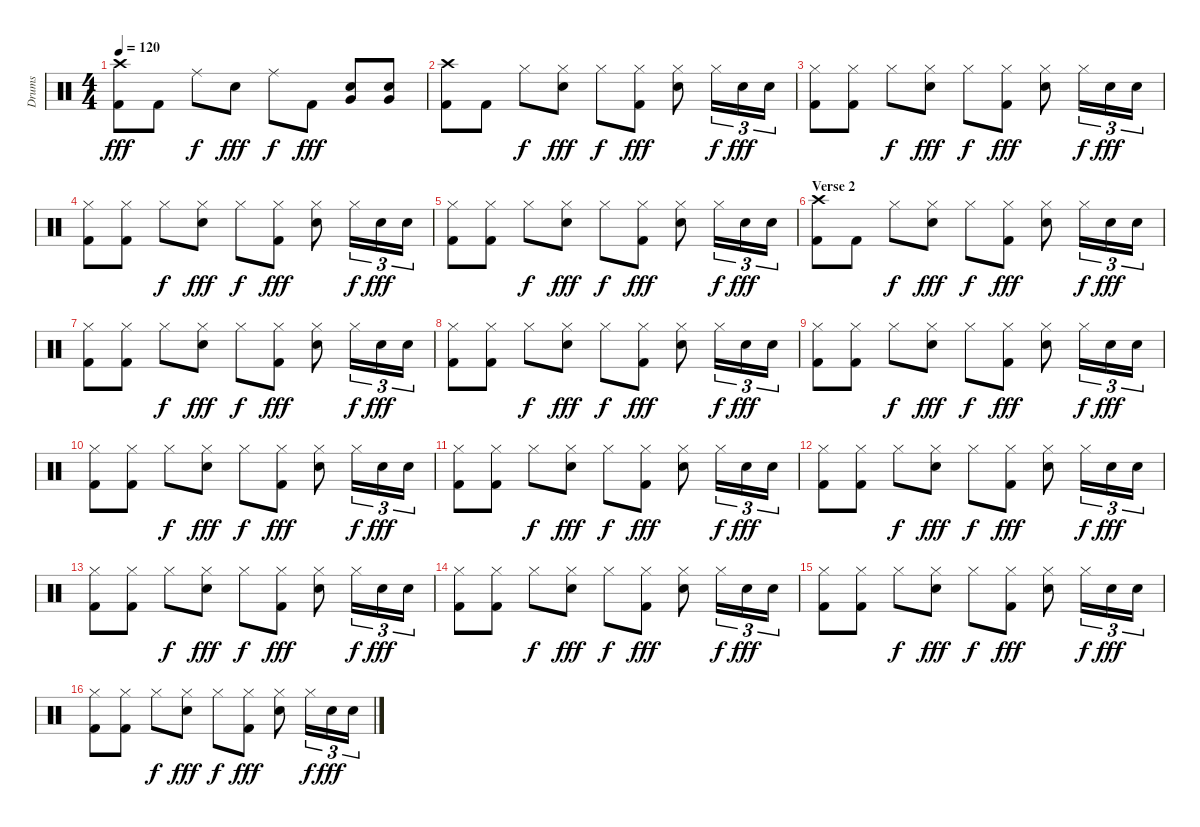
\track ("Drums" "Drums") {instrument percussion}
\staff {score}
\articulation defaults
\ts (4 4)
\tempo 120
\clef neutral
\ks c
("Crash high (hit)" "Kick (hit) 2").8{dy fff} "Kick (hit) 2".8 "Ride (middle)".8{dy f} "Snare (hit) 2".8{dy fff} "Ride (middle)".8{dy f} "Kick (hit) 2".8{dy fff} ("Snare (hit) 2" "Very Low Tom (hit)").8 ("Snare (hit) 2" "Very Low Tom (hit)").8 |
("Crash high (hit)" "Kick (hit) 2").8 "Kick (hit) 2".8 "Hi-Hat (closed)".8{dy f} ("Hi-Hat (closed)" "Snare (hit) 2").8{dy fff} "Hi-Hat (closed)".8{dy f} ("Hi-Hat (closed)" "Kick (hit) 2").8{dy fff} ("Hi-Hat (closed)" "Snare (hit) 2").8 "Hi-Hat (closed)".16{tu (3 2) dy f} "Snare (hit) 2".16{tu (3 2) dy fff} "Snare (hit) 2".16{tu (3 2)} |
("Hi-Hat (closed)" "Kick (hit) 2").8 ("Hi-Hat (closed)" "Kick (hit) 2").8 "Hi-Hat (closed)".8{dy f} ("Hi-Hat (closed)" "Snare (hit) 2").8{dy fff} "Hi-Hat (closed)".8{dy f} ("Hi-Hat (closed)" "Kick (hit) 2").8{dy fff} ("Hi-Hat (closed)" "Snare (hit) 2").8 "Hi-Hat (closed)".16{tu (3 2) dy f} "Snare (hit) 2".16{tu (3 2) dy fff} "Snare (hit) 2".16{tu (3 2)} |
("Hi-Hat (closed)" "Kick (hit) 2").8 ("Hi-Hat (closed)" "Kick (hit) 2").8 "Hi-Hat (closed)".8{dy f} ("Hi-Hat (closed)" "Snare (hit) 2").8{dy fff} "Hi-Hat (closed)".8{dy f} ("Hi-Hat (closed)" "Kick (hit) 2").8{dy fff} ("Hi-Hat (closed)" "Snare (hit) 2").8 "Hi-Hat (closed)".16{tu (3 2) dy f} "Snare (hit) 2".16{tu (3 2) dy fff} "Snare (hit) 2".16{tu (3 2)} |
("Hi-Hat (closed)" "Kick (hit) 2").8 ("Hi-Hat (closed)" "Kick (hit) 2").8 "Hi-Hat (closed)".8{dy f} ("Hi-Hat (closed)" "Snare (hit) 2").8{dy fff} "Hi-Hat (closed)".8{dy f} ("Hi-Hat (closed)" "Kick (hit) 2").8{dy fff} ("Hi-Hat (closed)" "Snare (hit) 2").8 "Hi-Hat (closed)".16{tu (3 2) dy f} "Snare (hit) 2".16{tu (3 2) dy fff} "Snare (hit) 2".16{tu (3 2)} |
\section ("" "Verse 2")
("Crash high (hit)" "Kick (hit) 2").8 "Kick (hit) 2".8 "Hi-Hat (closed)".8{dy f} ("Hi-Hat (closed)" "Snare (hit) 2").8{dy fff} "Hi-Hat (closed)".8{dy f} ("Hi-Hat (closed)" "Kick (hit) 2").8{dy fff} ("Hi-Hat (closed)" "Snare (hit) 2").8 "Hi-Hat (closed)".16{tu (3 2) dy f} "Snare (hit) 2".16{tu (3 2) dy fff} "Snare (hit) 2".16{tu (3 2)} |
("Hi-Hat (closed)" "Kick (hit) 2").8 ("Hi-Hat (closed)" "Kick (hit) 2").8 "Hi-Hat (closed)".8{dy f} ("Hi-Hat (closed)" "Snare (hit) 2").8{dy fff} "Hi-Hat (closed)".8{dy f} ("Hi-Hat (closed)" "Kick (hit) 2").8{dy fff} ("Hi-Hat (closed)" "Snare (hit) 2").8 "Hi-Hat (closed)".16{tu (3 2) dy f} "Snare (hit) 2".16{tu (3 2) dy fff} "Snare (hit) 2".16{tu (3 2)} |
("Hi-Hat (closed)" "Kick (hit) 2").8 ("Hi-Hat (closed)" "Kick (hit) 2").8 "Hi-Hat (closed)".8{dy f} ("Hi-Hat (closed)" "Snare (hit) 2").8{dy fff} "Hi-Hat (closed)".8{dy f} ("Hi-Hat (closed)" "Kick (hit) 2").8{dy fff} ("Hi-Hat (closed)" "Snare (hit) 2").8 "Hi-Hat (closed)".16{tu (3 2) dy f} "Snare (hit) 2".16{tu (3 2) dy fff} "Snare (hit) 2".16{tu (3 2)} |
("Hi-Hat (closed)" "Kick (hit) 2").8 ("Hi-Hat (closed)" "Kick (hit) 2").8 "Hi-Hat (closed)".8{dy f} ("Hi-Hat (closed)" "Snare (hit) 2").8{dy fff} "Hi-Hat (closed)".8{dy f} ("Hi-Hat (closed)" "Kick (hit) 2").8{dy fff} ("Hi-Hat (closed)" "Snare (hit) 2").8 "Hi-Hat (closed)".16{tu (3 2) dy f} "Snare (hit) 2".16{tu (3 2) dy fff} "Snare (hit) 2".16{tu (3 2)} |
("Hi-Hat (closed)" "Kick (hit) 2").8 ("Hi-Hat (closed)" "Kick (hit) 2").8 "Hi-Hat (closed)".8{dy f} ("Hi-Hat (closed)" "Snare (hit) 2").8{dy fff} "Hi-Hat (closed)".8{dy f} ("Hi-Hat (closed)" "Kick (hit) 2").8{dy fff} ("Hi-Hat (closed)" "Snare (hit) 2").8 "Hi-Hat (closed)".16{tu (3 2) dy f} "Snare (hit) 2".16{tu (3 2) dy fff} "Snare (hit) 2".16{tu (3 2)} |
("Hi-Hat (closed)" "Kick (hit) 2").8 ("Hi-Hat (closed)" "Kick (hit) 2").8 "Hi-Hat (closed)".8{dy f} ("Hi-Hat (closed)" "Snare (hit) 2").8{dy fff} "Hi-Hat (closed)".8{dy f} ("Hi-Hat (closed)" "Kick (hit) 2").8{dy fff} ("Hi-Hat (closed)" "Snare (hit) 2").8 "Hi-Hat (closed)".16{tu (3 2) dy f} "Snare (hit) 2".16{tu (3 2) dy fff} "Snare (hit) 2".16{tu (3 2)} |
("Hi-Hat (closed)" "Kick (hit) 2").8 ("Hi-Hat (closed)" "Kick (hit) 2").8 "Hi-Hat (closed)".8{dy f} ("Hi-Hat (closed)" "Snare (hit) 2").8{dy fff} "Hi-Hat (closed)".8{dy f} ("Hi-Hat (closed)" "Kick (hit) 2").8{dy fff} ("Hi-Hat (closed)" "Snare (hit) 2").8 "Hi-Hat (closed)".16{tu (3 2) dy f} "Snare (hit) 2".16{tu (3 2) dy fff} "Snare (hit) 2".16{tu (3 2)} |
("Hi-Hat (closed)" "Kick (hit) 2").8 ("Hi-Hat (closed)" "Kick (hit) 2").8 "Hi-Hat (closed)".8{dy f} ("Hi-Hat (closed)" "Snare (hit) 2").8{dy fff} "Hi-Hat (closed)".8{dy f} ("Hi-Hat (closed)" "Kick (hit) 2").8{dy fff} ("Hi-Hat (closed)" "Snare (hit) 2").8 "Hi-Hat (closed)".16{tu (3 2) dy f} "Snare (hit) 2".16{tu (3 2) dy fff} "Snare (hit) 2".16{tu (3 2)} |
("Hi-Hat (closed)" "Kick (hit) 2").8 ("Hi-Hat (closed)" "Kick (hit) 2").8 "Hi-Hat (closed)".8{dy f} ("Hi-Hat (closed)" "Snare (hit) 2").8{dy fff} "Hi-Hat (closed)".8{dy f} ("Hi-Hat (closed)" "Kick (hit) 2").8{dy fff} ("Hi-Hat (closed)" "Snare (hit) 2").8 "Hi-Hat (closed)".16{tu (3 2) dy f} "Snare (hit) 2".16{tu (3 2) dy fff} "Snare (hit) 2".16{tu (3 2)} |
("Hi-Hat (closed)" "Kick (hit) 2").8 ("Hi-Hat (closed)" "Kick (hit) 2").8 "Hi-Hat (closed)".8{dy f} ("Hi-Hat (closed)" "Snare (hit) 2").8{dy fff} "Hi-Hat (closed)".8{dy f} ("Hi-Hat (closed)" "Kick (hit) 2").8{dy fff} ("Hi-Hat (closed)" "Snare (hit) 2").8 "Hi-Hat (closed)".16{tu (3 2) dy f} "Snare (hit) 2".16{tu (3 2) dy fff} "Snare (hit) 2".16{tu (3 2)} |
("Hi-Hat (closed)" "Kick (hit) 2").8 ("Hi-Hat (closed)" "Kick (hit) 2").8 "Hi-Hat (closed)".8{dy f} ("Hi-Hat (closed)" "Snare (hit) 2").8{dy fff} "Hi-Hat (closed)".8{dy f} ("Hi-Hat (closed)" "Kick (hit) 2").8{dy fff} ("Hi-Hat (closed)" "Snare (hit) 2").8 "Hi-Hat (closed)".16{tu (3 2) dy f} "Snare (hit) 2".16{tu (3 2) dy fff} "Snare (hit) 2".16{tu (3 2)}
